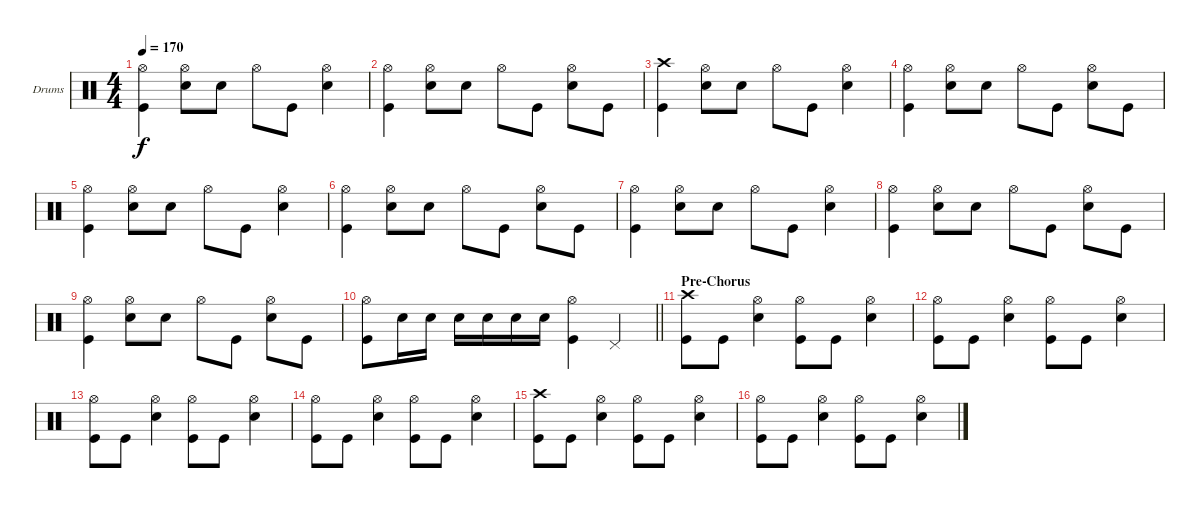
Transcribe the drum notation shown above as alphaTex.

\bracketExtendMode groupsimilarinstruments
\firstSystemTrackNameOrientation horizontal
\otherSystemsTrackNameOrientation horizontal
\track ("Drumkit" "Drums") {instrument percussion}
\staff {score}
\articulation defaults
\ts (4 4)
\tempo 170
\clef neutral
\ks c
("Hi-Hat (open)" "Kick (hit)").4{dy f} ("Hi-Hat (open)" "Snare (hit) 2").8 "Snare (hit) 2".8 "Hi-Hat (open)".8 "Kick (hit)".8 ("Hi-Hat (open)" "Snare (hit) 2").4 |
("Hi-Hat (open)" "Kick (hit)").4 ("Hi-Hat (open)" "Snare (hit) 2").8 "Snare (hit) 2".8 "Hi-Hat (open)".8 "Kick (hit)".8 ("Hi-Hat (open)" "Snare (hit) 2").8 "Kick (hit)".8 |
("Crash high (hit)" "Kick (hit)").4 ("Hi-Hat (open)" "Snare (hit) 2").8 "Snare (hit) 2".8 "Hi-Hat (open)".8 "Kick (hit)".8 ("Hi-Hat (open)" "Snare (hit) 2").4 |
("Hi-Hat (open)" "Kick (hit)").4 ("Hi-Hat (open)" "Snare (hit) 2").8 "Snare (hit) 2".8 "Hi-Hat (open)".8 "Kick (hit)".8 ("Hi-Hat (open)" "Snare (hit) 2").8 "Kick (hit)".8 |
("Hi-Hat (open)" "Kick (hit)").4 ("Hi-Hat (open)" "Snare (hit) 2").8 "Snare (hit) 2".8 "Hi-Hat (open)".8 "Kick (hit)".8 ("Hi-Hat (open)" "Snare (hit) 2").4 |
("Hi-Hat (open)" "Kick (hit)").4 ("Hi-Hat (open)" "Snare (hit) 2").8 "Snare (hit) 2".8 "Hi-Hat (open)".8 "Kick (hit)".8 ("Hi-Hat (open)" "Snare (hit) 2").8 "Kick (hit)".8 |
("Hi-Hat (open)" "Kick (hit)").4 ("Hi-Hat (open)" "Snare (hit) 2").8 "Snare (hit) 2".8 "Hi-Hat (open)".8 "Kick (hit)".8 ("Hi-Hat (open)" "Snare (hit) 2").4 |
("Hi-Hat (open)" "Kick (hit)").4 ("Hi-Hat (open)" "Snare (hit) 2").8 "Snare (hit) 2".8 "Hi-Hat (open)".8 "Kick (hit)".8 ("Hi-Hat (open)" "Snare (hit) 2").8 "Kick (hit)".8 |
("Hi-Hat (open)" "Kick (hit)").4 ("Hi-Hat (open)" "Snare (hit) 2").8 "Snare (hit) 2".8 "Hi-Hat (open)".8 "Kick (hit)".8 ("Hi-Hat (open)" "Snare (hit) 2").8 "Kick (hit)".8 |
\barLineRight lightlight
("Hi-Hat (open)" "Kick (hit)").8 "Snare (hit) 2".16 "Snare (hit) 2".16 "Snare (hit) 2".16 "Snare (hit) 2".16 "Snare (hit) 2".16 "Snare (hit) 2".16 ("Hi-Hat (open)" "Kick (hit)").4 "Pedal Hi-Hat (hit)".4 |
\section ("" "Pre-Chorus")
("Crash high (hit)" "Kick (hit)").8 "Kick (hit)".8 ("Hi-Hat (open)" "Snare (hit) 2").4 ("Hi-Hat (open)" "Kick (hit)").8 "Kick (hit)".8 ("Hi-Hat (open)" "Snare (hit) 2").4 |
("Hi-Hat (open)" "Kick (hit)").8 "Kick (hit)".8 ("Hi-Hat (open)" "Snare (hit) 2").4 ("Hi-Hat (open)" "Kick (hit)").8 "Kick (hit)".8 ("Hi-Hat (open)" "Snare (hit) 2").4 |
("Hi-Hat (open)" "Kick (hit)").8 "Kick (hit)".8 ("Hi-Hat (open)" "Snare (hit) 2").4 ("Hi-Hat (open)" "Kick (hit)").8 "Kick (hit)".8 ("Hi-Hat (open)" "Snare (hit) 2").4 |
("Hi-Hat (open)" "Kick (hit)").8 "Kick (hit)".8 ("Hi-Hat (open)" "Snare (hit) 2").4 ("Hi-Hat (open)" "Kick (hit)").8 "Kick (hit)".8 ("Hi-Hat (open)" "Snare (hit) 2").4 |
("Crash high (hit)" "Kick (hit)").8 "Kick (hit)".8 ("Hi-Hat (open)" "Snare (hit) 2").4 ("Hi-Hat (open)" "Kick (hit)").8 "Kick (hit)".8 ("Hi-Hat (open)" "Snare (hit) 2").4 |
("Hi-Hat (open)" "Kick (hit)").8 "Kick (hit)".8 ("Hi-Hat (open)" "Snare (hit) 2").4 ("Hi-Hat (open)" "Kick (hit)").8 "Kick (hit)".8 ("Hi-Hat (open)" "Snare (hit) 2").4
